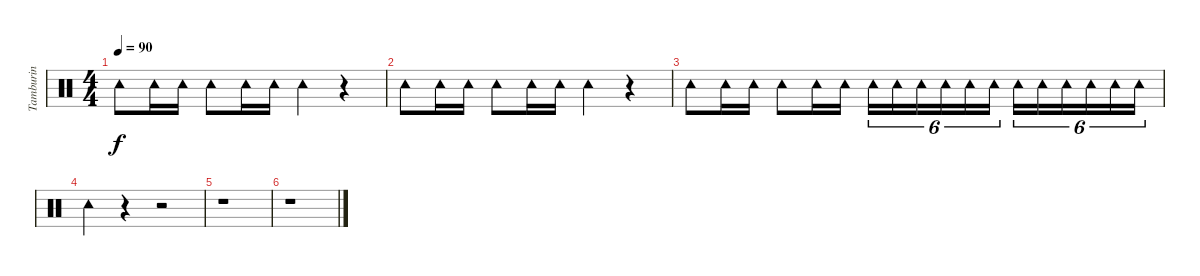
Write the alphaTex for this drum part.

\track ("Tamburin" "Tamburin") {instrument percussion}
\staff {score}
\articulation defaults
\ts (4 4)
\tempo 90
\clef neutral
\ks c "Tambourine (hit)".8{dy f} "Tambourine (hit)".16 "Tambourine (hit)".16 "Tambourine (hit)".8 "Tambourine (hit)".16 "Tambourine (hit)".16 "Tambourine (hit)".4
r.4 |
"Tambourine (hit)".8 "Tambourine (hit)".16 "Tambourine (hit)".16 "Tambourine (hit)".8 "Tambourine (hit)".16 "Tambourine (hit)".16 "Tambourine (hit)".4 r.4 |
"Tambourine (hit)".8 "Tambourine (hit)".16 "Tambourine (hit)".16 "Tambourine (hit)".8 "Tambourine (hit)".16 "Tambourine (hit)".16 "Tambourine (hit)".16{tu (6 4)} "Tambourine (hit)".16{tu (6 4)} "Tambourine (hit)".16{tu (6 4)} "Tambourine (hit)".16{tu (6 4)} "Tambourine (hit)".16{tu (6 4)} "Tambourine (hit)".16{tu (6 4)} "Tambourine (hit)".16{tu (6 4)} "Tambourine (hit)".16{tu (6 4)} "Tambourine (hit)".16{tu (6 4)} "Tambourine (hit)".16{tu (6 4)} "Tambourine (hit)".16{tu (6 4)} "Tambourine (hit)".16{tu (6 4)} |
"Tambourine (hit)".4 r.4 r.2 |
r.1 |
r.1
